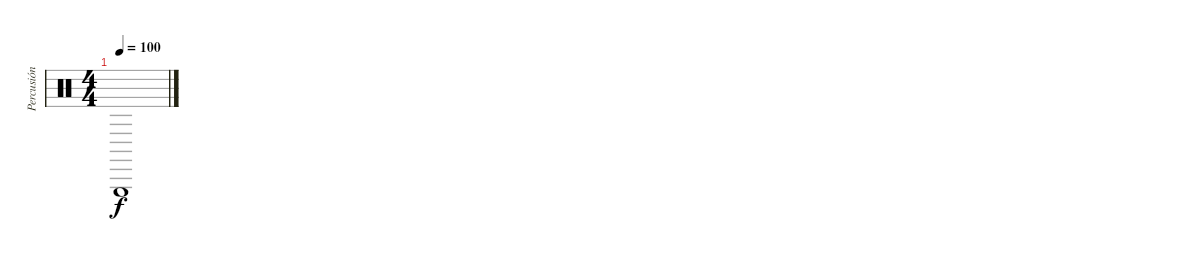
\track ("Percusión" "Percusión") {instrument percussion}
\staff {score}
\articulation defaults
\ts (4 4)
\tempo 100
\clef neutral
\ks c "Triangle (hit)".1{dy f}
